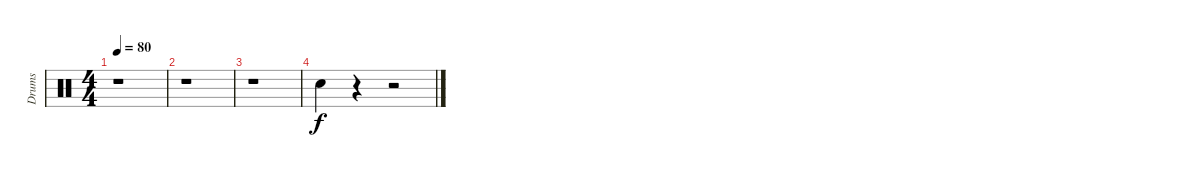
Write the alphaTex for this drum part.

\track ("Drums" "Drums") {instrument percussion}
\staff {score}
\articulation defaults
\ts (4 4)
\tempo 80
\clef neutral
\ks c
r.1{dy f} |
r.1 |
r.1 |
"Snare (hit) 2".4 r.4 r.2
